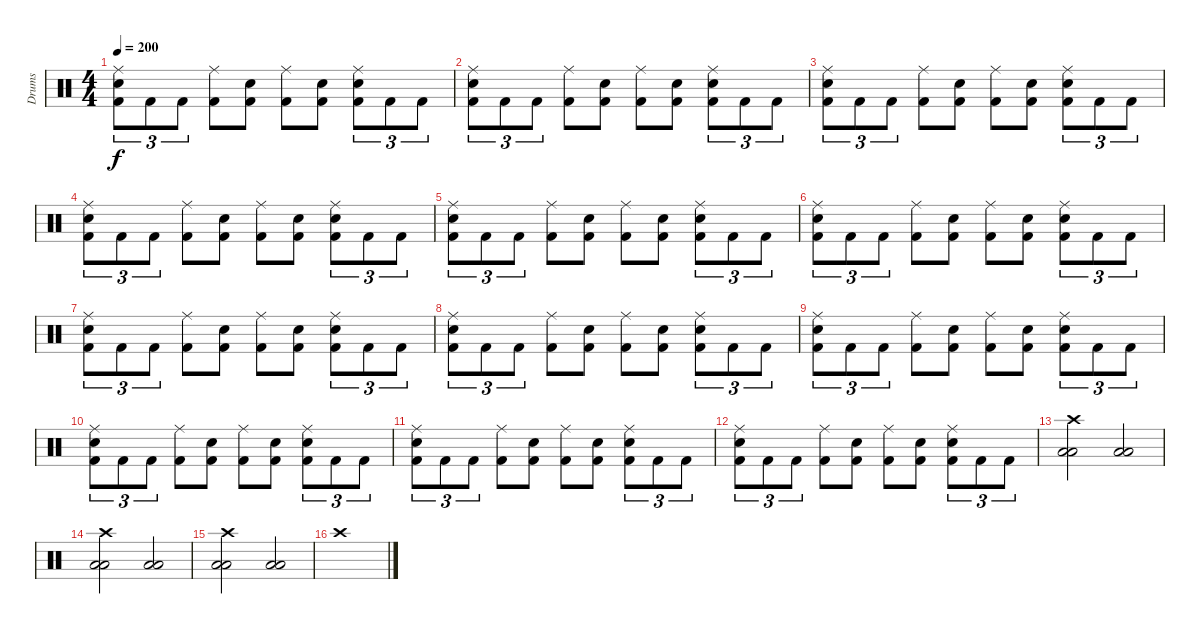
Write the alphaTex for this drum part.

\track ("Drums" "Drums") {instrument percussion}
\staff {score}
\articulation defaults
\ts (4 4)
\tempo 200
\clef neutral
\ks c
("Ride (middle)" "Snare (hit) 2" "Kick (hit) 2").8{tu (3 2) dy f} "Kick (hit) 2".8{tu (3 2)} "Kick (hit) 2".8{tu (3 2)} ("Ride (middle)" "Kick (hit) 2").8 ("Snare (hit) 2" "Kick (hit) 2").8 ("Ride (middle)" "Kick (hit) 2").8 ("Snare (hit) 2" "Kick (hit) 2").8 ("Ride (middle)" "Snare (hit) 2" "Kick (hit) 2").8{tu (3 2)} "Kick (hit) 2".8{tu (3 2)} "Kick (hit) 2".8{tu (3 2)} |
("Ride (middle)" "Snare (hit) 2" "Kick (hit) 2").8{tu (3 2)} "Kick (hit) 2".8{tu (3 2)} "Kick (hit) 2".8{tu (3 2)} ("Ride (middle)" "Kick (hit) 2").8 ("Snare (hit) 2" "Kick (hit) 2").8 ("Ride (middle)" "Kick (hit) 2").8 ("Snare (hit) 2" "Kick (hit) 2").8 ("Ride (middle)" "Snare (hit) 2" "Kick (hit) 2").8{tu (3 2)} "Kick (hit) 2".8{tu (3 2)} "Kick (hit) 2".8{tu (3 2)} |
("Ride (middle)" "Snare (hit) 2" "Kick (hit) 2").8{tu (3 2)} "Kick (hit) 2".8{tu (3 2)} "Kick (hit) 2".8{tu (3 2)} ("Ride (middle)" "Kick (hit) 2").8 ("Snare (hit) 2" "Kick (hit) 2").8 ("Ride (middle)" "Kick (hit) 2").8 ("Snare (hit) 2" "Kick (hit) 2").8 ("Ride (middle)" "Snare (hit) 2" "Kick (hit) 2").8{tu (3 2)} "Kick (hit) 2".8{tu (3 2)} "Kick (hit) 2".8{tu (3 2)} |
("Ride (middle)" "Snare (hit) 2" "Kick (hit) 2").8{tu (3 2)} "Kick (hit) 2".8{tu (3 2)} "Kick (hit) 2".8{tu (3 2)} ("Ride (middle)" "Kick (hit) 2").8 ("Snare (hit) 2" "Kick (hit) 2").8 ("Ride (middle)" "Kick (hit) 2").8 ("Snare (hit) 2" "Kick (hit) 2").8 ("Ride (middle)" "Snare (hit) 2" "Kick (hit) 2").8{tu (3 2)} "Kick (hit) 2".8{tu (3 2)} "Kick (hit) 2".8{tu (3 2)} |
("Ride (middle)" "Snare (hit) 2" "Kick (hit) 2").8{tu (3 2)} "Kick (hit) 2".8{tu (3 2)} "Kick (hit) 2".8{tu (3 2)} ("Ride (middle)" "Kick (hit) 2").8 ("Snare (hit) 2" "Kick (hit) 2").8 ("Ride (middle)" "Kick (hit) 2").8 ("Snare (hit) 2" "Kick (hit) 2").8 ("Ride (middle)" "Snare (hit) 2" "Kick (hit) 2").8{tu (3 2)} "Kick (hit) 2".8{tu (3 2)} "Kick (hit) 2".8{tu (3 2)} |
("Ride (middle)" "Snare (hit) 2" "Kick (hit) 2").8{tu (3 2)} "Kick (hit) 2".8{tu (3 2)} "Kick (hit) 2".8{tu (3 2)} ("Ride (middle)" "Kick (hit) 2").8 ("Snare (hit) 2" "Kick (hit) 2").8 ("Ride (middle)" "Kick (hit) 2").8 ("Snare (hit) 2" "Kick (hit) 2").8 ("Ride (middle)" "Snare (hit) 2" "Kick (hit) 2").8{tu (3 2)} "Kick (hit) 2".8{tu (3 2)} "Kick (hit) 2".8{tu (3 2)} |
("Ride (middle)" "Snare (hit) 2" "Kick (hit) 2").8{tu (3 2)} "Kick (hit) 2".8{tu (3 2)} "Kick (hit) 2".8{tu (3 2)} ("Ride (middle)" "Kick (hit) 2").8 ("Snare (hit) 2" "Kick (hit) 2").8 ("Ride (middle)" "Kick (hit) 2").8 ("Snare (hit) 2" "Kick (hit) 2").8 ("Ride (middle)" "Snare (hit) 2" "Kick (hit) 2").8{tu (3 2)} "Kick (hit) 2".8{tu (3 2)} "Kick (hit) 2".8{tu (3 2)} |
("Ride (middle)" "Snare (hit) 2" "Kick (hit) 2").8{tu (3 2)} "Kick (hit) 2".8{tu (3 2)} "Kick (hit) 2".8{tu (3 2)} ("Ride (middle)" "Kick (hit) 2").8 ("Snare (hit) 2" "Kick (hit) 2").8 ("Ride (middle)" "Kick (hit) 2").8 ("Snare (hit) 2" "Kick (hit) 2").8 ("Ride (middle)" "Snare (hit) 2" "Kick (hit) 2").8{tu (3 2)} "Kick (hit) 2".8{tu (3 2)} "Kick (hit) 2".8{tu (3 2)} |
("Ride (middle)" "Snare (hit) 2" "Kick (hit) 2").8{tu (3 2)} "Kick (hit) 2".8{tu (3 2)} "Kick (hit) 2".8{tu (3 2)} ("Ride (middle)" "Kick (hit) 2").8 ("Snare (hit) 2" "Kick (hit) 2").8 ("Ride (middle)" "Kick (hit) 2").8 ("Snare (hit) 2" "Kick (hit) 2").8 ("Ride (middle)" "Snare (hit) 2" "Kick (hit) 2").8{tu (3 2)} "Kick (hit) 2".8{tu (3 2)} "Kick (hit) 2".8{tu (3 2)} |
("Ride (middle)" "Snare (hit) 2" "Kick (hit) 2").8{tu (3 2)} "Kick (hit) 2".8{tu (3 2)} "Kick (hit) 2".8{tu (3 2)} ("Ride (middle)" "Kick (hit) 2").8 ("Snare (hit) 2" "Kick (hit) 2").8 ("Ride (middle)" "Kick (hit) 2").8 ("Snare (hit) 2" "Kick (hit) 2").8 ("Ride (middle)" "Snare (hit) 2" "Kick (hit) 2").8{tu (3 2)} "Kick (hit) 2".8{tu (3 2)} "Kick (hit) 2".8{tu (3 2)} |
("Ride (middle)" "Snare (hit) 2" "Kick (hit) 2").8{tu (3 2)} "Kick (hit) 2".8{tu (3 2)} "Kick (hit) 2".8{tu (3 2)} ("Ride (middle)" "Kick (hit) 2").8 ("Snare (hit) 2" "Kick (hit) 2").8 ("Ride (middle)" "Kick (hit) 2").8 ("Snare (hit) 2" "Kick (hit) 2").8 ("Ride (middle)" "Snare (hit) 2" "Kick (hit) 2").8{tu (3 2)} "Kick (hit) 2".8{tu (3 2)} "Kick (hit) 2".8{tu (3 2)} |
("Ride (middle)" "Snare (hit) 2" "Kick (hit) 2").8{tu (3 2)} "Kick (hit) 2".8{tu (3 2)} "Kick (hit) 2".8{tu (3 2)} ("Ride (middle)" "Kick (hit) 2").8 ("Snare (hit) 2" "Kick (hit) 2").8 ("Ride (middle)" "Kick (hit) 2").8 ("Snare (hit) 2" "Kick (hit) 2").8 ("Ride (middle)" "Snare (hit) 2" "Kick (hit) 2").8{tu (3 2)} "Kick (hit) 2".8{tu (3 2)} "Kick (hit) 2".8{tu (3 2)} |
("Crash high (hit)" "Low Floor Tom (hit)" "Low Floor Tom (hit)").2 ("Low Floor Tom (hit)" "Low Floor Tom (hit)").2 |
("Crash high (hit)" "Low Floor Tom (hit)" "Low Floor Tom (hit)").2 ("Low Floor Tom (hit)" "Low Floor Tom (hit)").2 |
("Crash high (hit)" "Low Floor Tom (hit)" "Low Floor Tom (hit)").2 ("Low Floor Tom (hit)" "Low Floor Tom (hit)").2 |
"Crash high (hit)".1
